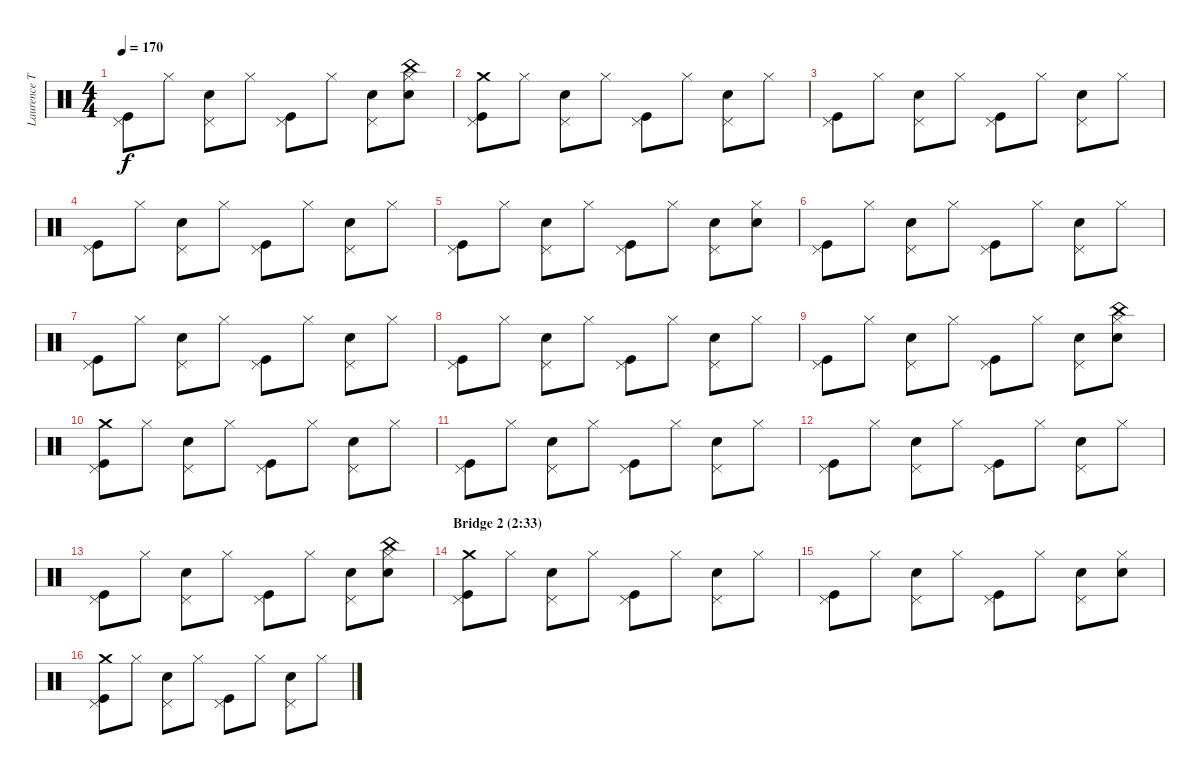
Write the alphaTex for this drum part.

\track ("Laurence Tolhurst (drums)" "Laurence T") {instrument percussion}
\staff {score}
\articulation defaults
\ts (4 4)
\tempo 170
\clef neutral
\ks c
("Pedal Hi-Hat (hit)" "Kick (hit)").8{dy f} "Hi-Hat (closed)".8 ("Pedal Hi-Hat (hit)" "Snare (hit) 2").8 "Hi-Hat (closed)".8 ("Pedal Hi-Hat (hit)" "Kick (hit)").8 "Hi-Hat (closed)".8 ("Pedal Hi-Hat (hit)" "Snare (hit) 2").8 ("China (hit)" "Hi-Hat (closed)" "Snare (hit) 2").8 |
("Crash medium (hit)" "Pedal Hi-Hat (hit)" "Kick (hit)").8 "Hi-Hat (closed)".8 ("Pedal Hi-Hat (hit)" "Snare (hit) 2").8 "Hi-Hat (closed)".8 ("Pedal Hi-Hat (hit)" "Kick (hit)").8 "Hi-Hat (closed)".8 ("Pedal Hi-Hat (hit)" "Snare (hit) 2").8 "Hi-Hat (closed)".8 |
("Pedal Hi-Hat (hit)" "Kick (hit)").8 "Hi-Hat (closed)".8 ("Pedal Hi-Hat (hit)" "Snare (hit) 2").8 "Hi-Hat (closed)".8 ("Pedal Hi-Hat (hit)" "Kick (hit)").8 "Hi-Hat (closed)".8 ("Pedal Hi-Hat (hit)" "Snare (hit) 2").8 "Hi-Hat (closed)".8 |
("Pedal Hi-Hat (hit)" "Kick (hit)").8 "Hi-Hat (closed)".8 ("Pedal Hi-Hat (hit)" "Snare (hit) 2").8 "Hi-Hat (closed)".8 ("Pedal Hi-Hat (hit)" "Kick (hit)").8 "Hi-Hat (closed)".8 ("Pedal Hi-Hat (hit)" "Snare (hit) 2").8 "Hi-Hat (closed)".8 |
("Pedal Hi-Hat (hit)" "Kick (hit)").8 "Hi-Hat (closed)".8 ("Pedal Hi-Hat (hit)" "Snare (hit) 2").8 "Hi-Hat (closed)".8 ("Pedal Hi-Hat (hit)" "Kick (hit)").8 "Hi-Hat (closed)".8 ("Pedal Hi-Hat (hit)" "Snare (hit) 2").8 ("Hi-Hat (closed)" "Snare (hit) 2").8 |
("Pedal Hi-Hat (hit)" "Kick (hit)").8 "Hi-Hat (closed)".8 ("Pedal Hi-Hat (hit)" "Snare (hit) 2").8 "Hi-Hat (closed)".8 ("Pedal Hi-Hat (hit)" "Kick (hit)").8 "Hi-Hat (closed)".8 ("Pedal Hi-Hat (hit)" "Snare (hit) 2").8 "Hi-Hat (closed)".8 |
("Pedal Hi-Hat (hit)" "Kick (hit)").8 "Hi-Hat (closed)".8 ("Pedal Hi-Hat (hit)" "Snare (hit) 2").8 "Hi-Hat (closed)".8 ("Pedal Hi-Hat (hit)" "Kick (hit)").8 "Hi-Hat (closed)".8 ("Pedal Hi-Hat (hit)" "Snare (hit) 2").8 "Hi-Hat (closed)".8 |
("Pedal Hi-Hat (hit)" "Kick (hit)").8 "Hi-Hat (closed)".8 ("Pedal Hi-Hat (hit)" "Snare (hit) 2").8 "Hi-Hat (closed)".8 ("Pedal Hi-Hat (hit)" "Kick (hit)").8 "Hi-Hat (closed)".8 ("Pedal Hi-Hat (hit)" "Snare (hit) 2").8 "Hi-Hat (closed)".8 |
("Pedal Hi-Hat (hit)" "Kick (hit)").8 "Hi-Hat (closed)".8 ("Pedal Hi-Hat (hit)" "Snare (hit) 2").8 "Hi-Hat (closed)".8 ("Pedal Hi-Hat (hit)" "Kick (hit)").8 "Hi-Hat (closed)".8 ("Pedal Hi-Hat (hit)" "Snare (hit) 2").8 ("China (hit)" "Hi-Hat (closed)" "Snare (hit) 2").8 |
("Crash medium (hit)" "Pedal Hi-Hat (hit)" "Kick (hit)").8 "Hi-Hat (closed)".8 ("Pedal Hi-Hat (hit)" "Snare (hit) 2").8 "Hi-Hat (closed)".8 ("Pedal Hi-Hat (hit)" "Kick (hit)").8 "Hi-Hat (closed)".8 ("Pedal Hi-Hat (hit)" "Snare (hit) 2").8 "Hi-Hat (closed)".8 |
("Pedal Hi-Hat (hit)" "Kick (hit)").8 "Hi-Hat (closed)".8 ("Pedal Hi-Hat (hit)" "Snare (hit) 2").8 "Hi-Hat (closed)".8 ("Pedal Hi-Hat (hit)" "Kick (hit)").8 "Hi-Hat (closed)".8 ("Pedal Hi-Hat (hit)" "Snare (hit) 2").8 "Hi-Hat (closed)".8 |
("Pedal Hi-Hat (hit)" "Kick (hit)").8 "Hi-Hat (closed)".8 ("Pedal Hi-Hat (hit)" "Snare (hit) 2").8 "Hi-Hat (closed)".8 ("Pedal Hi-Hat (hit)" "Kick (hit)").8 "Hi-Hat (closed)".8 ("Pedal Hi-Hat (hit)" "Snare (hit) 2").8 "Hi-Hat (closed)".8 |
("Pedal Hi-Hat (hit)" "Kick (hit)").8 "Hi-Hat (closed)".8 ("Pedal Hi-Hat (hit)" "Snare (hit) 2").8 "Hi-Hat (closed)".8 ("Pedal Hi-Hat (hit)" "Kick (hit)").8 "Hi-Hat (closed)".8 ("Pedal Hi-Hat (hit)" "Snare (hit) 2").8 ("China (hit)" "Hi-Hat (closed)" "Snare (hit) 2").8 |
\section ("" "Bridge 2 (2:33)")
("Crash medium (hit)" "Pedal Hi-Hat (hit)" "Kick (hit)").8 "Hi-Hat (closed)".8 ("Pedal Hi-Hat (hit)" "Snare (hit) 2").8 "Hi-Hat (closed)".8 ("Pedal Hi-Hat (hit)" "Kick (hit)").8 "Hi-Hat (closed)".8 ("Pedal Hi-Hat (hit)" "Snare (hit) 2").8 "Hi-Hat (closed)".8 |
("Pedal Hi-Hat (hit)" "Kick (hit)").8 "Hi-Hat (closed)".8 ("Pedal Hi-Hat (hit)" "Snare (hit) 2").8 "Hi-Hat (closed)".8 ("Pedal Hi-Hat (hit)" "Kick (hit)").8 "Hi-Hat (closed)".8 ("Pedal Hi-Hat (hit)" "Snare (hit) 2").8 ("Hi-Hat (closed)" "Snare (hit) 2").8 |
("Crash medium (hit)" "Pedal Hi-Hat (hit)" "Kick (hit)").8 "Hi-Hat (closed)".8 ("Pedal Hi-Hat (hit)" "Snare (hit) 2").8 "Hi-Hat (closed)".8 ("Pedal Hi-Hat (hit)" "Kick (hit)").8 "Hi-Hat (closed)".8 ("Pedal Hi-Hat (hit)" "Snare (hit) 2").8 "Hi-Hat (closed)".8
